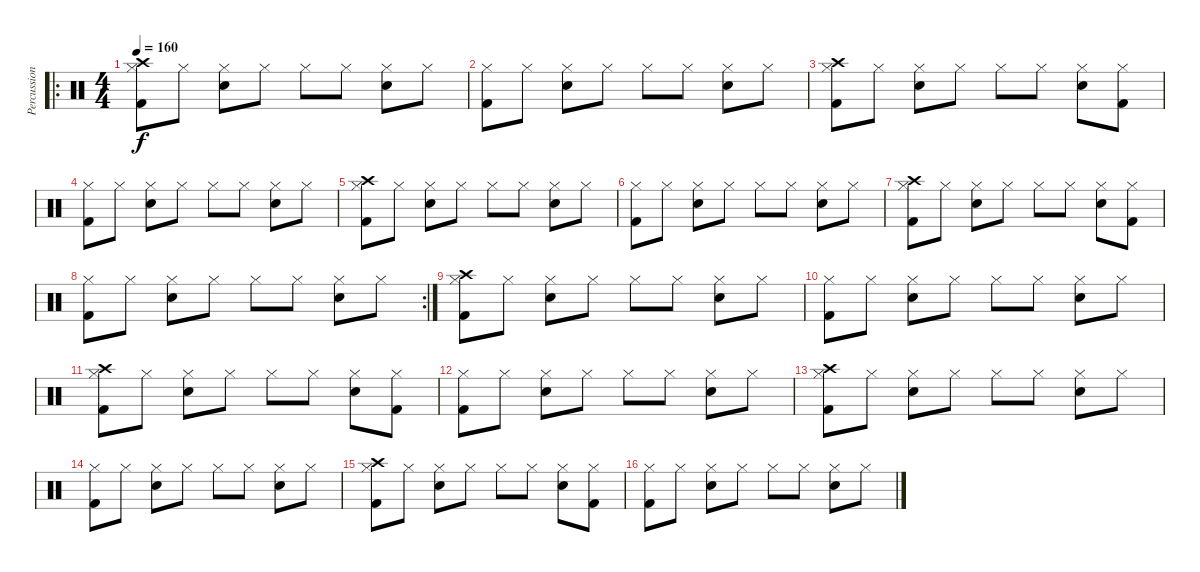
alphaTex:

\track ("Percussion" "Percussion") {instrument percussion}
\staff {score}
\articulation defaults
\ro
\ts (4 4)
\tempo 160
\clef neutral
\ks c
("Kick (hit) 2" "Hi-Hat (closed)" "Crash high (hit)").8{dy f} "Hi-Hat (closed)".8 ("Snare (hit) 2" "Hi-Hat (closed)").8 "Hi-Hat (closed)".8 "Hi-Hat (closed)".8 "Hi-Hat (closed)".8 ("Snare (hit) 2" "Hi-Hat (closed)").8 "Hi-Hat (closed)".8 |
("Kick (hit) 2" "Hi-Hat (closed)").8 "Hi-Hat (closed)".8 ("Snare (hit) 2" "Hi-Hat (closed)").8 "Hi-Hat (closed)".8 "Hi-Hat (closed)".8 "Hi-Hat (closed)".8 ("Snare (hit) 2" "Hi-Hat (closed)").8 "Hi-Hat (closed)".8 |
("Kick (hit) 2" "Hi-Hat (closed)" "Crash high (hit)").8 "Hi-Hat (closed)".8 ("Snare (hit) 2" "Hi-Hat (closed)").8 "Hi-Hat (closed)".8 "Hi-Hat (closed)".8 "Hi-Hat (closed)".8 ("Snare (hit) 2" "Hi-Hat (closed)").8 ("Kick (hit) 2" "Hi-Hat (closed)").8 |
("Kick (hit) 2" "Hi-Hat (closed)").8 "Hi-Hat (closed)".8 ("Snare (hit) 2" "Hi-Hat (closed)").8 "Hi-Hat (closed)".8 "Hi-Hat (closed)".8 "Hi-Hat (closed)".8 ("Snare (hit) 2" "Hi-Hat (closed)").8 "Hi-Hat (closed)".8 |
("Kick (hit) 2" "Hi-Hat (closed)" "Crash high (hit)").8 "Hi-Hat (closed)".8 ("Snare (hit) 2" "Hi-Hat (closed)").8 "Hi-Hat (closed)".8 "Hi-Hat (closed)".8 "Hi-Hat (closed)".8 ("Snare (hit) 2" "Hi-Hat (closed)").8 "Hi-Hat (closed)".8 |
("Kick (hit) 2" "Hi-Hat (closed)").8 "Hi-Hat (closed)".8 ("Snare (hit) 2" "Hi-Hat (closed)").8 "Hi-Hat (closed)".8 "Hi-Hat (closed)".8 "Hi-Hat (closed)".8 ("Snare (hit) 2" "Hi-Hat (closed)").8 "Hi-Hat (closed)".8 |
("Kick (hit) 2" "Hi-Hat (closed)" "Crash high (hit)").8 "Hi-Hat (closed)".8 ("Snare (hit) 2" "Hi-Hat (closed)").8 "Hi-Hat (closed)".8 "Hi-Hat (closed)".8 "Hi-Hat (closed)".8 ("Snare (hit) 2" "Hi-Hat (closed)").8 ("Kick (hit) 2" "Hi-Hat (closed)").8 |
\rc 2
("Kick (hit) 2" "Hi-Hat (closed)").8 "Hi-Hat (closed)".8 ("Snare (hit) 2" "Hi-Hat (closed)").8 "Hi-Hat (closed)".8 "Hi-Hat (closed)".8 "Hi-Hat (closed)".8 ("Snare (hit) 2" "Hi-Hat (closed)").8 "Hi-Hat (closed)".8 |
("Kick (hit) 2" "Hi-Hat (closed)" "Crash high (hit)").8 "Hi-Hat (closed)".8 ("Snare (hit) 2" "Hi-Hat (closed)").8 "Hi-Hat (closed)".8 "Hi-Hat (closed)".8 "Hi-Hat (closed)".8 ("Snare (hit) 2" "Hi-Hat (closed)").8 "Hi-Hat (closed)".8 |
("Kick (hit) 2" "Hi-Hat (closed)").8 "Hi-Hat (closed)".8 ("Snare (hit) 2" "Hi-Hat (closed)").8 "Hi-Hat (closed)".8 "Hi-Hat (closed)".8 "Hi-Hat (closed)".8 ("Snare (hit) 2" "Hi-Hat (closed)").8 "Hi-Hat (closed)".8 |
("Kick (hit) 2" "Hi-Hat (closed)" "Crash high (hit)").8 "Hi-Hat (closed)".8 ("Snare (hit) 2" "Hi-Hat (closed)").8 "Hi-Hat (closed)".8 "Hi-Hat (closed)".8 "Hi-Hat (closed)".8 ("Snare (hit) 2" "Hi-Hat (closed)").8 ("Kick (hit) 2" "Hi-Hat (closed)").8 |
("Kick (hit) 2" "Hi-Hat (closed)").8 "Hi-Hat (closed)".8 ("Snare (hit) 2" "Hi-Hat (closed)").8 "Hi-Hat (closed)".8 "Hi-Hat (closed)".8 "Hi-Hat (closed)".8 ("Snare (hit) 2" "Hi-Hat (closed)").8 "Hi-Hat (closed)".8 |
("Kick (hit) 2" "Hi-Hat (closed)" "Crash high (hit)").8 "Hi-Hat (closed)".8 ("Snare (hit) 2" "Hi-Hat (closed)").8 "Hi-Hat (closed)".8 "Hi-Hat (closed)".8 "Hi-Hat (closed)".8 ("Snare (hit) 2" "Hi-Hat (closed)").8 "Hi-Hat (closed)".8 |
("Kick (hit) 2" "Hi-Hat (closed)").8 "Hi-Hat (closed)".8 ("Snare (hit) 2" "Hi-Hat (closed)").8 "Hi-Hat (closed)".8 "Hi-Hat (closed)".8 "Hi-Hat (closed)".8 ("Snare (hit) 2" "Hi-Hat (closed)").8 "Hi-Hat (closed)".8 |
("Kick (hit) 2" "Hi-Hat (closed)" "Crash high (hit)").8 "Hi-Hat (closed)".8 ("Snare (hit) 2" "Hi-Hat (closed)").8 "Hi-Hat (closed)".8 "Hi-Hat (closed)".8 "Hi-Hat (closed)".8 ("Snare (hit) 2" "Hi-Hat (closed)").8 ("Kick (hit) 2" "Hi-Hat (closed)").8 |
("Kick (hit) 2" "Hi-Hat (closed)").8 "Hi-Hat (closed)".8 ("Snare (hit) 2" "Hi-Hat (closed)").8 "Hi-Hat (closed)".8 "Hi-Hat (closed)".8 "Hi-Hat (closed)".8 ("Snare (hit) 2" "Hi-Hat (closed)").8 "Hi-Hat (closed)".8
